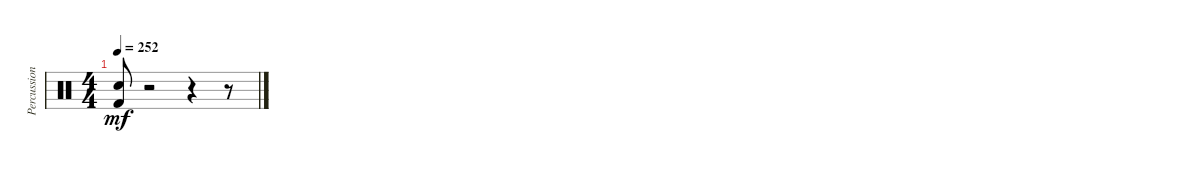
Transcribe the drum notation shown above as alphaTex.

\track ("Percussion" "Percussion") {instrument percussion}
\staff {score}
\articulation defaults
\ts (4 4)
\tempo 252
\clef neutral
\ks c
("Electric Snare (hit)" "Kick (hit) 2").8{dy mf} r.2 r.4 r.8
